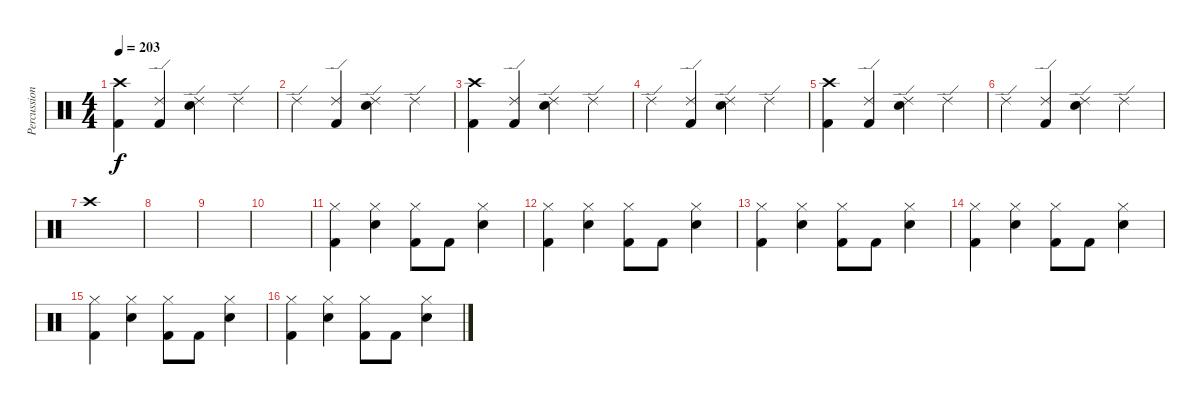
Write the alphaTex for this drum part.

\track ("Percussion" "Percussion") {instrument percussion}
\staff {score}
\articulation defaults
\ts (4 4)
\tempo 203
\clef neutral
\ks c
("Crash high (hit)" "Kick (hit) 2").4{dy f} ("Ride (edge) 2" "Kick (hit) 2").4 ("Ride (edge) 2" "Electric Snare (hit)").4 "Ride (edge) 2".4 |
"Ride (edge) 2".4 ("Ride (edge) 2" "Kick (hit) 2").4 ("Ride (edge) 2" "Electric Snare (hit)").4 "Ride (edge) 2".4 |
("Crash high (hit)" "Kick (hit) 2").4 ("Ride (edge) 2" "Kick (hit) 2").4 ("Ride (edge) 2" "Electric Snare (hit)").4 "Ride (edge) 2".4 |
"Ride (edge) 2".4 ("Ride (edge) 2" "Kick (hit) 2").4 ("Ride (edge) 2" "Electric Snare (hit)").4 "Ride (edge) 2".4 |
("Crash high (hit)" "Kick (hit) 2").4 ("Ride (edge) 2" "Kick (hit) 2").4 ("Ride (edge) 2" "Electric Snare (hit)").4 "Ride (edge) 2".4 |
"Ride (edge) 2".4 ("Ride (edge) 2" "Kick (hit) 2").4 ("Ride (edge) 2" "Electric Snare (hit)").4 "Ride (edge) 2".4 |
"Crash high (hit)".1 |
|
|
|
("Hi-Hat (closed)" "Kick (hit) 2").4 ("Hi-Hat (closed)" "Electric Snare (hit)").4 ("Hi-Hat (closed)" "Kick (hit) 2").8 "Kick (hit) 2".8 ("Hi-Hat (closed)" "Electric Snare (hit)").4 |
("Hi-Hat (closed)" "Kick (hit) 2").4 ("Hi-Hat (closed)" "Electric Snare (hit)").4 ("Hi-Hat (closed)" "Kick (hit) 2").8 "Kick (hit) 2".8 ("Hi-Hat (closed)" "Electric Snare (hit)").4 |
("Hi-Hat (closed)" "Kick (hit) 2").4 ("Hi-Hat (closed)" "Electric Snare (hit)").4 ("Hi-Hat (closed)" "Kick (hit) 2").8 "Kick (hit) 2".8 ("Hi-Hat (closed)" "Electric Snare (hit)").4 |
("Hi-Hat (closed)" "Kick (hit) 2").4 ("Hi-Hat (closed)" "Electric Snare (hit)").4 ("Hi-Hat (closed)" "Kick (hit) 2").8 "Kick (hit) 2".8 ("Hi-Hat (closed)" "Electric Snare (hit)").4 |
("Hi-Hat (closed)" "Kick (hit) 2").4 ("Hi-Hat (closed)" "Electric Snare (hit)").4 ("Hi-Hat (closed)" "Kick (hit) 2").8 "Kick (hit) 2".8 ("Hi-Hat (closed)" "Electric Snare (hit)").4 |
("Hi-Hat (closed)" "Kick (hit) 2").4 ("Hi-Hat (closed)" "Electric Snare (hit)").4 ("Hi-Hat (closed)" "Kick (hit) 2").8 "Kick (hit) 2".8 ("Hi-Hat (closed)" "Electric Snare (hit)").4
